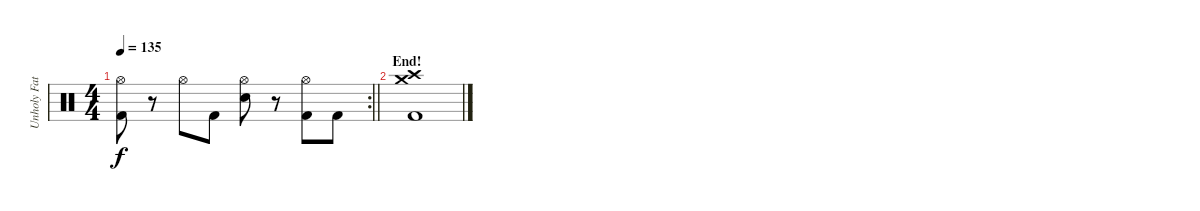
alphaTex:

\track ("Unholy Father" "Unholy Fat") {instrument percussion}
\staff {score}
\articulation defaults
\rc 2
\ts (4 4)
\tempo 135
\clef neutral
\barLineRight lightlight
\ks c
("Hi-Hat (open)" "Kick (hit) 2").8{dy f} r.8 "Hi-Hat (open)".8 "Kick (hit) 2".8 ("Hi-Hat (open)" "Snare (hit) 2").8 r.8 ("Hi-Hat (open)" "Kick (hit) 2").8 "Kick (hit) 2".8 |
\section ("" "End!")
("Crash high (hit)" "Crash medium (hit)" "Kick (hit) 2").1
